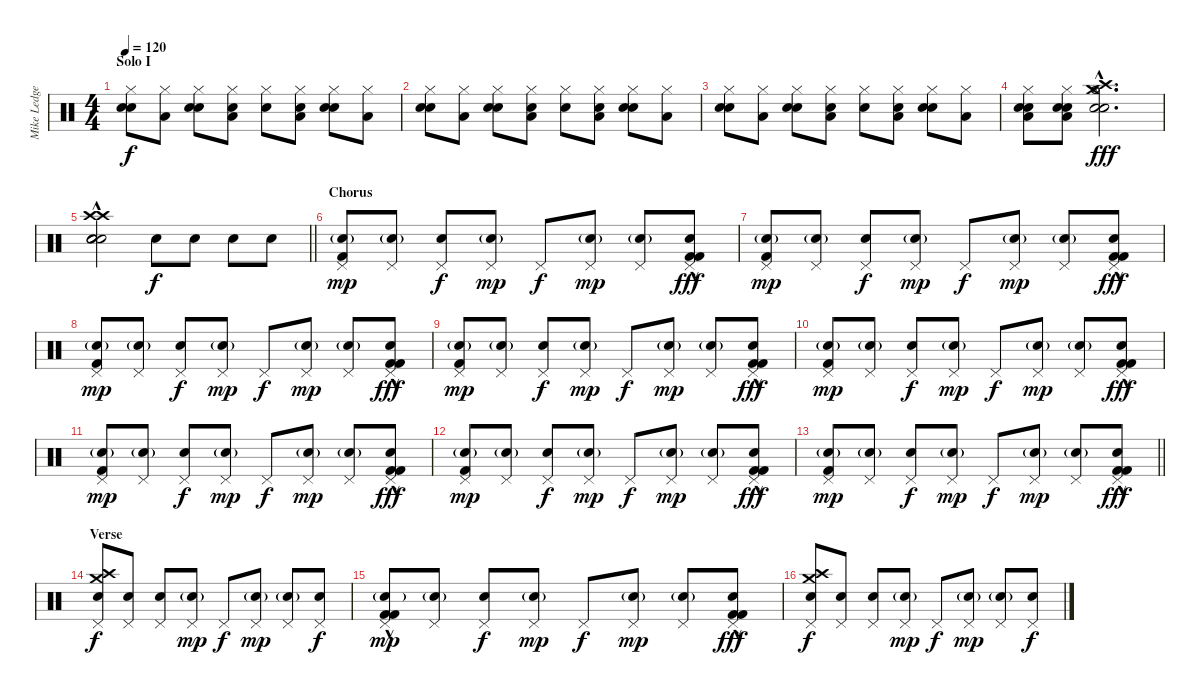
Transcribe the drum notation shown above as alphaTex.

\track ("Mike Ledger - Drums" "Mike Ledge") {instrument percussion}
\staff {score}
\articulation defaults
\ts (4 4)
\section ("" "Solo I")
\tempo 120
\clef neutral
\ks c
("Hi-Hat (closed)" "Snare (hit) 2" "Electric Snare (hit)").8{dy f} ("Hi-Hat (closed)" "Low Floor Tom (hit)").8 ("Hi-Hat (closed)" "Snare (hit) 2" "Electric Snare (hit)").8 ("Hi-Hat (closed)" "Low Floor Tom (hit)" "Electric Snare (hit)").8 ("Hi-Hat (closed)" "Snare (hit) 2").8 ("Hi-Hat (closed)" "Low Floor Tom (hit)" "Electric Snare (hit)").8 ("Hi-Hat (closed)" "Snare (hit) 2" "Electric Snare (hit)").8 ("Hi-Hat (closed)" "Low Floor Tom (hit)").8 |
("Hi-Hat (closed)" "Snare (hit) 2" "Electric Snare (hit)").8 ("Hi-Hat (closed)" "Low Floor Tom (hit)").8 ("Hi-Hat (closed)" "Snare (hit) 2" "Electric Snare (hit)").8 ("Hi-Hat (closed)" "Low Floor Tom (hit)" "Electric Snare (hit)").8 ("Hi-Hat (closed)" "Snare (hit) 2").8 ("Hi-Hat (closed)" "Low Floor Tom (hit)" "Electric Snare (hit)").8 ("Hi-Hat (closed)" "Snare (hit) 2" "Electric Snare (hit)").8 ("Hi-Hat (closed)" "Low Floor Tom (hit)").8 |
("Hi-Hat (closed)" "Snare (hit) 2" "Electric Snare (hit)").8 ("Hi-Hat (closed)" "Low Floor Tom (hit)").8 ("Hi-Hat (closed)" "Snare (hit) 2" "Electric Snare (hit)").8 ("Hi-Hat (closed)" "Low Floor Tom (hit)" "Electric Snare (hit)").8 ("Hi-Hat (closed)" "Snare (hit) 2").8 ("Hi-Hat (closed)" "Low Floor Tom (hit)" "Electric Snare (hit)").8 ("Hi-Hat (closed)" "Snare (hit) 2" "Electric Snare (hit)").8 ("Hi-Hat (closed)" "Low Floor Tom (hit)").8 |
("Hi-Hat (closed)" "Snare (hit) 2" "Low Floor Tom (hit)" "Electric Snare (hit)").8 ("Hi-Hat (closed)" "Snare (hit) 2" "Low Floor Tom (hit)" "Electric Snare (hit)").8 ("Crash high (hit)"{hac} "Crash medium (hit)"{hac} "Electric Snare (hit)"{hac} "Electric Snare (hit)"{hac} "Hi-Hat (open)"{hac} "Hi-Hat (open)"{hac}).2{d dy fff} |
\barLineRight lightlight
("Crash high (hit)"{hac} "Crash high (hit)"{hac} "Electric Snare (hit)"{hac} "Electric Snare (hit)"{hac} "Electric Snare (hit)"{hac} "Electric Snare (hit)"{hac}).2 "Snare (hit) 2".8{dy f} "Snare (hit) 2".8 "Snare (hit) 2".8 "Snare (hit) 2".8 |
\section ("" "Chorus")
("Pedal Hi-Hat (hit)" "Kick (hit) 2" "Snare (hit) 2"{g}).8{dy mp} ("Pedal Hi-Hat (hit)" "Snare (hit) 2"{g}).8 ("Pedal Hi-Hat (hit)" "Electric Snare (hit)").8{dy f} ("Pedal Hi-Hat (hit)" "Snare (hit) 2"{g}).8{dy mp} "Pedal Hi-Hat (hit)".8{dy f} ("Pedal Hi-Hat (hit)" "Snare (hit) 2"{g}).8{dy mp} ("Pedal Hi-Hat (hit)" "Snare (hit) 2"{g}).8 ("Pedal Hi-Hat (hit)" "Kick (hit) 2"{hac} "Kick (hit) 2"{hac} "Electric Snare (hit)").8{dy fff} |
("Pedal Hi-Hat (hit)" "Kick (hit) 2" "Snare (hit) 2"{g}).8{dy mp} ("Pedal Hi-Hat (hit)" "Snare (hit) 2"{g}).8 ("Pedal Hi-Hat (hit)" "Electric Snare (hit)").8{dy f} ("Pedal Hi-Hat (hit)" "Snare (hit) 2"{g}).8{dy mp} "Pedal Hi-Hat (hit)".8{dy f} ("Pedal Hi-Hat (hit)" "Snare (hit) 2"{g}).8{dy mp} ("Pedal Hi-Hat (hit)" "Snare (hit) 2"{g}).8 ("Pedal Hi-Hat (hit)" "Kick (hit) 2"{hac} "Kick (hit) 2"{hac} "Electric Snare (hit)").8{dy fff} |
("Pedal Hi-Hat (hit)" "Kick (hit) 2" "Snare (hit) 2"{g}).8{dy mp} ("Pedal Hi-Hat (hit)" "Snare (hit) 2"{g}).8 ("Pedal Hi-Hat (hit)" "Electric Snare (hit)").8{dy f} ("Pedal Hi-Hat (hit)" "Snare (hit) 2"{g}).8{dy mp} "Pedal Hi-Hat (hit)".8{dy f} ("Pedal Hi-Hat (hit)" "Snare (hit) 2"{g}).8{dy mp} ("Pedal Hi-Hat (hit)" "Snare (hit) 2"{g}).8 ("Pedal Hi-Hat (hit)" "Kick (hit) 2"{hac} "Kick (hit) 2"{hac} "Electric Snare (hit)").8{dy fff} |
("Pedal Hi-Hat (hit)" "Kick (hit) 2" "Snare (hit) 2"{g}).8{dy mp} ("Pedal Hi-Hat (hit)" "Snare (hit) 2"{g}).8 ("Pedal Hi-Hat (hit)" "Electric Snare (hit)").8{dy f} ("Pedal Hi-Hat (hit)" "Snare (hit) 2"{g}).8{dy mp} "Pedal Hi-Hat (hit)".8{dy f} ("Pedal Hi-Hat (hit)" "Snare (hit) 2"{g}).8{dy mp} ("Pedal Hi-Hat (hit)" "Snare (hit) 2"{g}).8 ("Pedal Hi-Hat (hit)" "Kick (hit) 2"{hac} "Kick (hit) 2"{hac} "Electric Snare (hit)").8{dy fff} |
("Pedal Hi-Hat (hit)" "Kick (hit) 2" "Snare (hit) 2"{g}).8{dy mp} ("Pedal Hi-Hat (hit)" "Snare (hit) 2"{g}).8 ("Pedal Hi-Hat (hit)" "Electric Snare (hit)").8{dy f} ("Pedal Hi-Hat (hit)" "Snare (hit) 2"{g}).8{dy mp} "Pedal Hi-Hat (hit)".8{dy f} ("Pedal Hi-Hat (hit)" "Snare (hit) 2"{g}).8{dy mp} ("Pedal Hi-Hat (hit)" "Snare (hit) 2"{g}).8 ("Pedal Hi-Hat (hit)" "Kick (hit) 2"{hac} "Kick (hit) 2"{hac} "Electric Snare (hit)").8{dy fff} |
("Pedal Hi-Hat (hit)" "Kick (hit) 2" "Snare (hit) 2"{g}).8{dy mp} ("Pedal Hi-Hat (hit)" "Snare (hit) 2"{g}).8 ("Pedal Hi-Hat (hit)" "Electric Snare (hit)").8{dy f} ("Pedal Hi-Hat (hit)" "Snare (hit) 2"{g}).8{dy mp} "Pedal Hi-Hat (hit)".8{dy f} ("Pedal Hi-Hat (hit)" "Snare (hit) 2"{g}).8{dy mp} ("Pedal Hi-Hat (hit)" "Snare (hit) 2"{g}).8 ("Pedal Hi-Hat (hit)" "Kick (hit) 2"{hac} "Kick (hit) 2"{hac} "Electric Snare (hit)").8{dy fff} |
("Pedal Hi-Hat (hit)" "Kick (hit) 2" "Snare (hit) 2"{g}).8{dy mp} ("Pedal Hi-Hat (hit)" "Snare (hit) 2"{g}).8 ("Pedal Hi-Hat (hit)" "Electric Snare (hit)").8{dy f} ("Pedal Hi-Hat (hit)" "Snare (hit) 2"{g}).8{dy mp} "Pedal Hi-Hat (hit)".8{dy f} ("Pedal Hi-Hat (hit)" "Snare (hit) 2"{g}).8{dy mp} ("Pedal Hi-Hat (hit)" "Snare (hit) 2"{g}).8 ("Pedal Hi-Hat (hit)" "Kick (hit) 2"{hac} "Kick (hit) 2"{hac} "Electric Snare (hit)").8{dy fff} |
\barLineRight lightlight
("Pedal Hi-Hat (hit)" "Kick (hit) 2" "Snare (hit) 2"{g}).8{dy mp} ("Pedal Hi-Hat (hit)" "Snare (hit) 2"{g}).8 ("Pedal Hi-Hat (hit)" "Electric Snare (hit)").8{dy f} ("Pedal Hi-Hat (hit)" "Snare (hit) 2"{g}).8{dy mp} "Pedal Hi-Hat (hit)".8{dy f} ("Pedal Hi-Hat (hit)" "Snare (hit) 2"{g}).8{dy mp} ("Pedal Hi-Hat (hit)" "Snare (hit) 2"{g}).8 ("Pedal Hi-Hat (hit)" "Kick (hit) 2"{hac} "Kick (hit) 2"{hac} "Electric Snare (hit)").8{dy fff} |
\section ("" "Verse")
("Pedal Hi-Hat (hit)" "Crash medium (hit)" "Crash high (hit)" "Snare (hit) 2").8{dy f} ("Pedal Hi-Hat (hit)" "Snare (hit) 2").8 ("Pedal Hi-Hat (hit)" "Electric Snare (hit)").8 ("Pedal Hi-Hat (hit)" "Snare (hit) 2"{g}).8{dy mp} "Pedal Hi-Hat (hit)".8{dy f} ("Pedal Hi-Hat (hit)" "Snare (hit) 2"{g}).8{dy mp} ("Pedal Hi-Hat (hit)" "Snare (hit) 2"{g}).8 ("Pedal Hi-Hat (hit)" "Electric Snare (hit)").8{dy f} |
("Pedal Hi-Hat (hit)" "Kick (hit) 2"{hac} "Kick (hit) 2"{hac} "Snare (hit) 2"{g}).8{dy mp} ("Pedal Hi-Hat (hit)" "Snare (hit) 2"{g}).8 ("Pedal Hi-Hat (hit)" "Electric Snare (hit)").8{dy f} ("Pedal Hi-Hat (hit)" "Snare (hit) 2"{g}).8{dy mp} "Pedal Hi-Hat (hit)".8{dy f} ("Pedal Hi-Hat (hit)" "Snare (hit) 2"{g}).8{dy mp} ("Pedal Hi-Hat (hit)" "Snare (hit) 2"{g}).8 ("Pedal Hi-Hat (hit)" "Kick (hit) 2"{hac} "Kick (hit) 2"{hac} "Electric Snare (hit)").8{dy fff} |
("Pedal Hi-Hat (hit)" "Crash medium (hit)" "Crash high (hit)" "Snare (hit) 2").8{dy f} ("Pedal Hi-Hat (hit)" "Snare (hit) 2").8 ("Pedal Hi-Hat (hit)" "Electric Snare (hit)").8 ("Pedal Hi-Hat (hit)" "Snare (hit) 2"{g}).8{dy mp} "Pedal Hi-Hat (hit)".8{dy f} ("Pedal Hi-Hat (hit)" "Snare (hit) 2"{g}).8{dy mp} ("Pedal Hi-Hat (hit)" "Snare (hit) 2"{g}).8 ("Pedal Hi-Hat (hit)" "Electric Snare (hit)").8{dy f}
